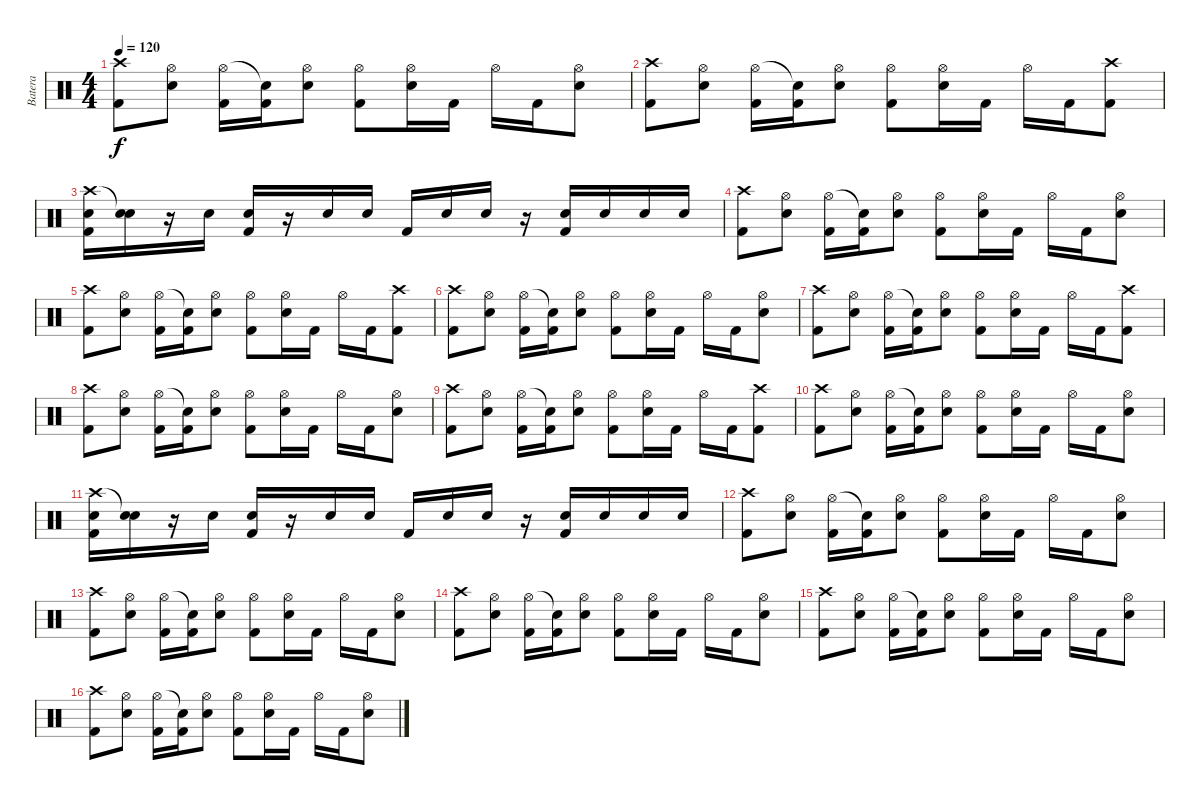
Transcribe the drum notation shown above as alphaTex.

\track ("Batera" "Batera") {instrument percussion}
\staff {score}
\articulation defaults
\ts (4 4)
\tempo 120
\clef neutral
\ks c
("Crash high (hit)" "Kick (hit) 2").8{dy f} ("Hi-Hat (open)" "Electric Snare (hit)").8 ("Hi-Hat (open)" "Kick (hit) 2").16 ("Snare (hit)"{t} "Kick (hit) 2").16 ("Hi-Hat (open)" "Electric Snare (hit)").8 ("Hi-Hat (open)" "Kick (hit) 2").8 ("Hi-Hat (open)" "Electric Snare (hit)").16 "Kick (hit) 2".16 "Hi-Hat (open)".16 "Kick (hit) 2".16 ("Hi-Hat (open)" "Electric Snare (hit)").8 |
("Crash high (hit)" "Kick (hit) 2").8 ("Hi-Hat (open)" "Electric Snare (hit)").8 ("Hi-Hat (open)" "Kick (hit) 2").16 ("Snare (hit)"{t} "Kick (hit) 2").16 ("Hi-Hat (open)" "Electric Snare (hit)").8 ("Hi-Hat (open)" "Kick (hit) 2").8 ("Hi-Hat (open)" "Electric Snare (hit)").16 "Kick (hit) 2".16 "Hi-Hat (open)".16 "Kick (hit) 2".16 ("Crash high (hit)" "Kick (hit) 2").8 |
("Crash high (hit)" "Electric Snare (hit)" "Kick (hit) 2").16 ("Snare (hit)"{t} "Electric Snare (hit)").16 r.16 "Electric Snare (hit)".16 ("Electric Snare (hit)" "Kick (hit) 2").16 r.16 "Electric Snare (hit)".16 "Electric Snare (hit)".16 "Kick (hit) 2".16 "Electric Snare (hit)".16 "Electric Snare (hit)".16 r.16 ("Electric Snare (hit)" "Kick (hit) 2").16 "Electric Snare (hit)".16 "Electric Snare (hit)".16 "Electric Snare (hit)".16 |
("Crash high (hit)" "Kick (hit) 2").8 ("Hi-Hat (open)" "Electric Snare (hit)").8 ("Hi-Hat (open)" "Kick (hit) 2").16 ("Snare (hit)"{t} "Kick (hit) 2").16 ("Hi-Hat (open)" "Electric Snare (hit)").8 ("Hi-Hat (open)" "Kick (hit) 2").8 ("Hi-Hat (open)" "Electric Snare (hit)").16 "Kick (hit) 2".16 "Hi-Hat (open)".16 "Kick (hit) 2".16 ("Hi-Hat (open)" "Electric Snare (hit)").8 |
("Crash high (hit)" "Kick (hit) 2").8 ("Hi-Hat (open)" "Electric Snare (hit)").8 ("Hi-Hat (open)" "Kick (hit) 2").16 ("Snare (hit)"{t} "Kick (hit) 2").16 ("Hi-Hat (open)" "Electric Snare (hit)").8 ("Hi-Hat (open)" "Kick (hit) 2").8 ("Hi-Hat (open)" "Electric Snare (hit)").16 "Kick (hit) 2".16 "Hi-Hat (open)".16 "Kick (hit) 2".16 ("Crash high (hit)" "Kick (hit) 2").8 |
("Crash high (hit)" "Kick (hit) 2").8 ("Hi-Hat (open)" "Electric Snare (hit)").8 ("Hi-Hat (open)" "Kick (hit) 2").16 ("Snare (hit)"{t} "Kick (hit) 2").16 ("Hi-Hat (open)" "Electric Snare (hit)").8 ("Hi-Hat (open)" "Kick (hit) 2").8 ("Hi-Hat (open)" "Electric Snare (hit)").16 "Kick (hit) 2".16 "Hi-Hat (open)".16 "Kick (hit) 2".16 ("Hi-Hat (open)" "Electric Snare (hit)").8 |
("Crash high (hit)" "Kick (hit) 2").8 ("Hi-Hat (open)" "Electric Snare (hit)").8 ("Hi-Hat (open)" "Kick (hit) 2").16 ("Snare (hit)"{t} "Kick (hit) 2").16 ("Hi-Hat (open)" "Electric Snare (hit)").8 ("Hi-Hat (open)" "Kick (hit) 2").8 ("Hi-Hat (open)" "Electric Snare (hit)").16 "Kick (hit) 2".16 "Hi-Hat (open)".16 "Kick (hit) 2".16 ("Crash high (hit)" "Kick (hit) 2").8 |
("Crash high (hit)" "Kick (hit) 2").8 ("Hi-Hat (open)" "Electric Snare (hit)").8 ("Hi-Hat (open)" "Kick (hit) 2").16 ("Snare (hit)"{t} "Kick (hit) 2").16 ("Hi-Hat (open)" "Electric Snare (hit)").8 ("Hi-Hat (open)" "Kick (hit) 2").8 ("Hi-Hat (open)" "Electric Snare (hit)").16 "Kick (hit) 2".16 "Hi-Hat (open)".16 "Kick (hit) 2".16 ("Hi-Hat (open)" "Electric Snare (hit)").8 |
("Crash high (hit)" "Kick (hit) 2").8 ("Hi-Hat (open)" "Electric Snare (hit)").8 ("Hi-Hat (open)" "Kick (hit) 2").16 ("Snare (hit)"{t} "Kick (hit) 2").16 ("Hi-Hat (open)" "Electric Snare (hit)").8 ("Hi-Hat (open)" "Kick (hit) 2").8 ("Hi-Hat (open)" "Electric Snare (hit)").16 "Kick (hit) 2".16 "Hi-Hat (open)".16 "Kick (hit) 2".16 ("Crash high (hit)" "Kick (hit) 2").8 |
("Crash high (hit)" "Kick (hit) 2").8 ("Hi-Hat (open)" "Electric Snare (hit)").8 ("Hi-Hat (open)" "Kick (hit) 2").16 ("Snare (hit)"{t} "Kick (hit) 2").16 ("Hi-Hat (open)" "Electric Snare (hit)").8 ("Hi-Hat (open)" "Kick (hit) 2").8 ("Hi-Hat (open)" "Electric Snare (hit)").16 "Kick (hit) 2".16 "Hi-Hat (open)".16 "Kick (hit) 2".16 ("Hi-Hat (open)" "Electric Snare (hit)").8 |
("Crash high (hit)" "Electric Snare (hit)" "Kick (hit) 2").16 ("Snare (hit)"{t} "Electric Snare (hit)").16 r.16 "Electric Snare (hit)".16 ("Electric Snare (hit)" "Kick (hit) 2").16 r.16 "Electric Snare (hit)".16 "Electric Snare (hit)".16 "Kick (hit) 2".16 "Electric Snare (hit)".16 "Electric Snare (hit)".16 r.16 ("Electric Snare (hit)" "Kick (hit) 2").16 "Electric Snare (hit)".16 "Electric Snare (hit)".16 "Electric Snare (hit)".16 |
("Crash high (hit)" "Kick (hit) 2").8 ("Hi-Hat (open)" "Electric Snare (hit)").8 ("Hi-Hat (open)" "Kick (hit) 2").16 ("Snare (hit)"{t} "Kick (hit) 2").16 ("Hi-Hat (open)" "Electric Snare (hit)").8 ("Hi-Hat (open)" "Kick (hit) 2").8 ("Hi-Hat (open)" "Electric Snare (hit)").16 "Kick (hit) 2".16 "Hi-Hat (open)".16 "Kick (hit) 2".16 ("Hi-Hat (open)" "Electric Snare (hit)").8 |
("Crash high (hit)" "Kick (hit) 2").8 ("Hi-Hat (open)" "Electric Snare (hit)").8 ("Hi-Hat (open)" "Kick (hit) 2").16 ("Snare (hit)"{t} "Kick (hit) 2").16 ("Hi-Hat (open)" "Electric Snare (hit)").8 ("Hi-Hat (open)" "Kick (hit) 2").8 ("Hi-Hat (open)" "Electric Snare (hit)").16 "Kick (hit) 2".16 "Hi-Hat (open)".16 "Kick (hit) 2".16 ("Hi-Hat (open)" "Electric Snare (hit)").8 |
("Crash high (hit)" "Kick (hit) 2").8 ("Hi-Hat (open)" "Electric Snare (hit)").8 ("Hi-Hat (open)" "Kick (hit) 2").16 ("Snare (hit)"{t} "Kick (hit) 2").16 ("Hi-Hat (open)" "Electric Snare (hit)").8 ("Hi-Hat (open)" "Kick (hit) 2").8 ("Hi-Hat (open)" "Electric Snare (hit)").16 "Kick (hit) 2".16 "Hi-Hat (open)".16 "Kick (hit) 2".16 ("Hi-Hat (open)" "Electric Snare (hit)").8 |
("Crash high (hit)" "Kick (hit) 2").8 ("Hi-Hat (open)" "Electric Snare (hit)").8 ("Hi-Hat (open)" "Kick (hit) 2").16 ("Snare (hit)"{t} "Kick (hit) 2").16 ("Hi-Hat (open)" "Electric Snare (hit)").8 ("Hi-Hat (open)" "Kick (hit) 2").8 ("Hi-Hat (open)" "Electric Snare (hit)").16 "Kick (hit) 2".16 "Hi-Hat (open)".16 "Kick (hit) 2".16 ("Hi-Hat (open)" "Electric Snare (hit)").8 |
("Crash high (hit)" "Kick (hit) 2").8 ("Hi-Hat (open)" "Electric Snare (hit)").8 ("Hi-Hat (open)" "Kick (hit) 2").16 ("Snare (hit)"{t} "Kick (hit) 2").16 ("Hi-Hat (open)" "Electric Snare (hit)").8 ("Hi-Hat (open)" "Kick (hit) 2").8 ("Hi-Hat (open)" "Electric Snare (hit)").16 "Kick (hit) 2".16 "Hi-Hat (open)".16 "Kick (hit) 2".16 ("Hi-Hat (open)" "Electric Snare (hit)").8
